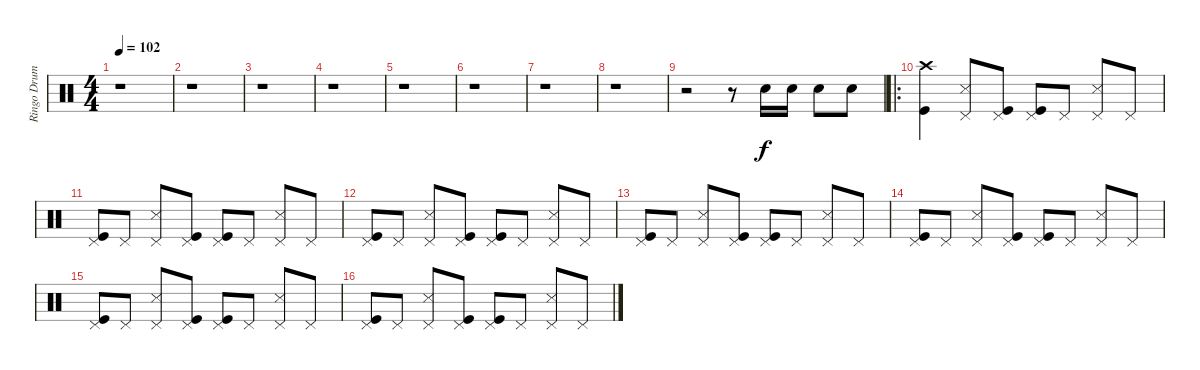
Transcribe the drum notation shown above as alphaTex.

\track ("Ringo Drums" "Ringo Drum") {instrument percussion}
\staff {score}
\articulation defaults
\ts (4 4)
\tempo 102
\clef neutral
\ks c
r.1{dy f} |
r.1 |
r.1 |
r.1 |
r.1 |
r.1 |
r.1 |
r.1 |
r.2 r.8 "Snare (hit) 2".16 "Snare (hit) 2".16 "Snare (hit) 2".8 "Snare (hit) 2".8 |
\ro
("Crash high (hit)" "Kick (hit)").4 ("Pedal Hi-Hat (hit)" "Snare (side stick) 3").8 ("Pedal Hi-Hat (hit)" "Kick (hit)").8 ("Pedal Hi-Hat (hit)" "Kick (hit)").8 "Pedal Hi-Hat (hit)".8 ("Pedal Hi-Hat (hit)" "Snare (side stick) 3").8 "Pedal Hi-Hat (hit)".8 |
("Pedal Hi-Hat (hit)" "Kick (hit)").8 "Pedal Hi-Hat (hit)".8 ("Pedal Hi-Hat (hit)" "Snare (side stick) 3").8 ("Pedal Hi-Hat (hit)" "Kick (hit)").8 ("Pedal Hi-Hat (hit)" "Kick (hit)").8 "Pedal Hi-Hat (hit)".8 ("Pedal Hi-Hat (hit)" "Snare (side stick) 3").8 "Pedal Hi-Hat (hit)".8 |
("Pedal Hi-Hat (hit)" "Kick (hit)").8 "Pedal Hi-Hat (hit)".8 ("Pedal Hi-Hat (hit)" "Snare (side stick) 3").8 ("Pedal Hi-Hat (hit)" "Kick (hit)").8 ("Pedal Hi-Hat (hit)" "Kick (hit)").8 "Pedal Hi-Hat (hit)".8 ("Pedal Hi-Hat (hit)" "Snare (side stick) 3").8 "Pedal Hi-Hat (hit)".8 |
("Pedal Hi-Hat (hit)" "Kick (hit)").8 "Pedal Hi-Hat (hit)".8 ("Pedal Hi-Hat (hit)" "Snare (side stick) 3").8 ("Pedal Hi-Hat (hit)" "Kick (hit)").8 ("Pedal Hi-Hat (hit)" "Kick (hit)").8 "Pedal Hi-Hat (hit)".8 ("Pedal Hi-Hat (hit)" "Snare (side stick) 3").8 "Pedal Hi-Hat (hit)".8 |
("Pedal Hi-Hat (hit)" "Kick (hit)").8 "Pedal Hi-Hat (hit)".8 ("Pedal Hi-Hat (hit)" "Snare (side stick) 3").8 ("Pedal Hi-Hat (hit)" "Kick (hit)").8 ("Pedal Hi-Hat (hit)" "Kick (hit)").8 "Pedal Hi-Hat (hit)".8 ("Pedal Hi-Hat (hit)" "Snare (side stick) 3").8 "Pedal Hi-Hat (hit)".8 |
("Pedal Hi-Hat (hit)" "Kick (hit)").8 "Pedal Hi-Hat (hit)".8 ("Pedal Hi-Hat (hit)" "Snare (side stick) 3").8 ("Pedal Hi-Hat (hit)" "Kick (hit)").8 ("Pedal Hi-Hat (hit)" "Kick (hit)").8 "Pedal Hi-Hat (hit)".8 ("Pedal Hi-Hat (hit)" "Snare (side stick) 3").8 "Pedal Hi-Hat (hit)".8 |
("Pedal Hi-Hat (hit)" "Kick (hit)").8 "Pedal Hi-Hat (hit)".8 ("Pedal Hi-Hat (hit)" "Snare (side stick) 3").8 ("Pedal Hi-Hat (hit)" "Kick (hit)").8 ("Pedal Hi-Hat (hit)" "Kick (hit)").8 "Pedal Hi-Hat (hit)".8 ("Pedal Hi-Hat (hit)" "Snare (side stick) 3").8 "Pedal Hi-Hat (hit)".8
